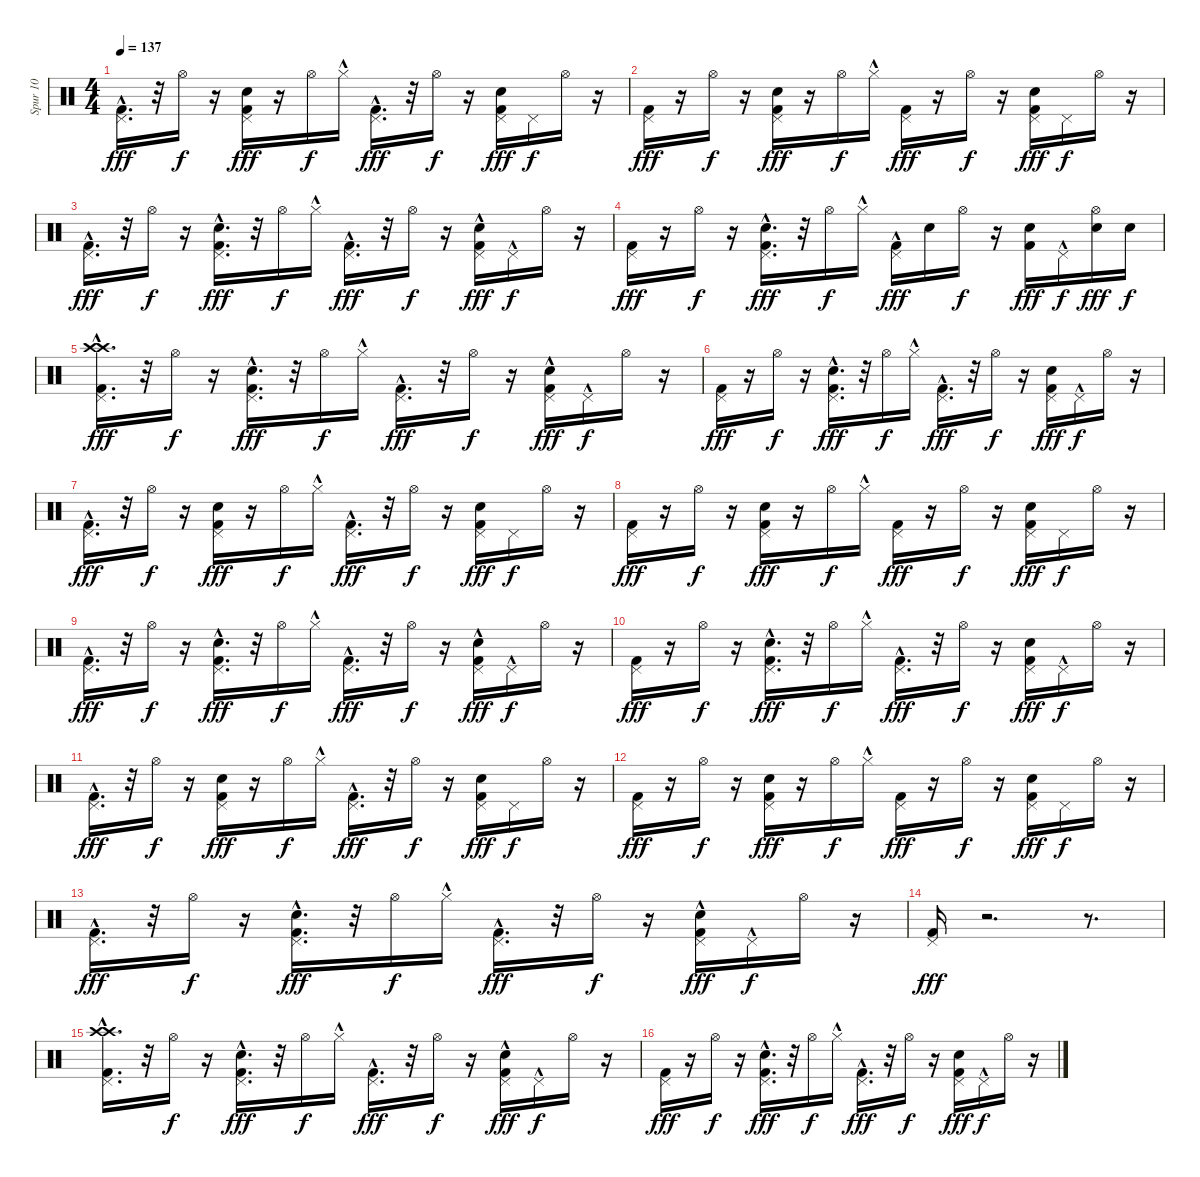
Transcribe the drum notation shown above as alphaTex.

\track ("Spur 10" "Spur 10") {instrument percussion}
\staff {score}
\articulation defaults
\ts (4 4)
\tempo 137
\clef neutral
\ks c
("Pedal Hi-Hat (hit)" "Kick (hit) 2"{hac}).16{d dy fff} r.32 "Hi-Hat (open)".16{dy f} r.16 ("Snare (hit) 2" "Pedal Hi-Hat (hit)" "Kick (hit) 2").16{dy fff} r.16 "Hi-Hat (open)".16{dy f} "Hi-Hat (closed)"{hac}.16 ("Pedal Hi-Hat (hit)" "Kick (hit) 2"{hac}).16{d dy fff} r.32 "Hi-Hat (open)".16{dy f} r.16 ("Snare (hit) 2" "Pedal Hi-Hat (hit)" "Kick (hit) 2").16{dy fff} "Pedal Hi-Hat (hit)".16{dy f} "Hi-Hat (open)".16 r.16 |
("Pedal Hi-Hat (hit)" "Kick (hit) 2").16{dy fff} r.16 "Hi-Hat (open)".16{dy f} r.16 ("Snare (hit) 2" "Pedal Hi-Hat (hit)" "Kick (hit) 2").16{dy fff} r.16 "Hi-Hat (open)".16{dy f} "Hi-Hat (closed)"{hac}.16 ("Pedal Hi-Hat (hit)" "Kick (hit) 2").16{dy fff} r.16 "Hi-Hat (open)".16{dy f} r.16 ("Snare (hit) 2" "Pedal Hi-Hat (hit)" "Kick (hit) 2").16{dy fff} "Pedal Hi-Hat (hit)".16{dy f} "Hi-Hat (open)".16 r.16 |
("Pedal Hi-Hat (hit)" "Kick (hit) 2"{hac}).16{d dy fff} r.32 "Hi-Hat (open)".16{dy f} r.16 ("Snare (hit) 2" "Pedal Hi-Hat (hit)" "Kick (hit) 2"{hac}).16{d dy fff} r.32 "Hi-Hat (open)".16{dy f} "Hi-Hat (closed)"{hac}.16 ("Pedal Hi-Hat (hit)"{hac} "Kick (hit) 2"{hac}).16{d dy fff} r.32 "Hi-Hat (open)".16{dy f} r.16 ("Snare (hit) 2" "Pedal Hi-Hat (hit)" "Kick (hit) 2"{hac}).16{dy fff} "Pedal Hi-Hat (hit)"{hac}.16{dy f} "Hi-Hat (open)".16 r.16 |
("Pedal Hi-Hat (hit)" "Kick (hit) 2").16{dy fff} r.16 "Hi-Hat (open)".16{dy f} r.16 ("Snare (hit) 2" "Pedal Hi-Hat (hit)" "Kick (hit) 2"{hac}).16{d dy fff} r.32 "Hi-Hat (open)".16{dy f} "Hi-Hat (closed)"{hac}.16 ("Pedal Hi-Hat (hit)" "Kick (hit) 2"{hac}).16{dy fff} "Snare (hit) 2".16 "Hi-Hat (open)".16{dy f} r.16 ("Snare (hit) 2" "Kick (hit) 2").16{dy fff} "Pedal Hi-Hat (hit)"{hac}.16{dy f} ("Snare (hit) 2" "Hi-Hat (open)").16{dy fff} "Snare (hit) 2".16{dy f} |
("Crash high (hit)" "Crash high (hit)" "Pedal Hi-Hat (hit)" "Kick (hit) 2"{hac}).16{d dy fff} r.32 "Hi-Hat (open)".16{dy f} r.16 ("Snare (hit) 2" "Pedal Hi-Hat (hit)" "Kick (hit) 2"{hac}).16{d dy fff} r.32 "Hi-Hat (open)".16{dy f} "Hi-Hat (closed)"{hac}.16 ("Pedal Hi-Hat (hit)"{hac} "Kick (hit) 2"{hac}).16{d dy fff} r.32 "Hi-Hat (open)".16{dy f} r.16 ("Snare (hit) 2" "Pedal Hi-Hat (hit)" "Kick (hit) 2"{hac}).16{dy fff} "Pedal Hi-Hat (hit)"{hac}.16{dy f} "Hi-Hat (open)".16 r.16 |
("Pedal Hi-Hat (hit)" "Kick (hit) 2").16{dy fff} r.16 "Hi-Hat (open)".16{dy f} r.16 ("Snare (hit) 2" "Pedal Hi-Hat (hit)" "Kick (hit) 2"{hac}).16{d dy fff} r.32 "Hi-Hat (open)".16{dy f} "Hi-Hat (closed)"{hac}.16 ("Pedal Hi-Hat (hit)" "Kick (hit) 2"{hac}).16{d dy fff} r.32 "Hi-Hat (open)".16{dy f} r.16 ("Snare (hit) 2" "Pedal Hi-Hat (hit)" "Kick (hit) 2").16{dy fff} "Pedal Hi-Hat (hit)"{hac}.16{dy f} "Hi-Hat (open)".16 r.16 |
("Pedal Hi-Hat (hit)" "Kick (hit) 2"{hac}).16{d dy fff} r.32 "Hi-Hat (open)".16{dy f} r.16 ("Snare (hit) 2" "Pedal Hi-Hat (hit)" "Kick (hit) 2").16{dy fff} r.16 "Hi-Hat (open)".16{dy f} "Hi-Hat (closed)"{hac}.16 ("Pedal Hi-Hat (hit)" "Kick (hit) 2"{hac}).16{d dy fff} r.32 "Hi-Hat (open)".16{dy f} r.16 ("Snare (hit) 2" "Pedal Hi-Hat (hit)" "Kick (hit) 2").16{dy fff} "Pedal Hi-Hat (hit)".16{dy f} "Hi-Hat (open)".16 r.16 |
("Pedal Hi-Hat (hit)" "Kick (hit) 2").16{dy fff} r.16 "Hi-Hat (open)".16{dy f} r.16 ("Snare (hit) 2" "Pedal Hi-Hat (hit)" "Kick (hit) 2").16{dy fff} r.16 "Hi-Hat (open)".16{dy f} "Hi-Hat (closed)"{hac}.16 ("Pedal Hi-Hat (hit)" "Kick (hit) 2").16{dy fff} r.16 "Hi-Hat (open)".16{dy f} r.16 ("Snare (hit) 2" "Pedal Hi-Hat (hit)" "Kick (hit) 2").16{dy fff} "Pedal Hi-Hat (hit)".16{dy f} "Hi-Hat (open)".16 r.16 |
("Pedal Hi-Hat (hit)" "Kick (hit) 2"{hac}).16{d dy fff} r.32 "Hi-Hat (open)".16{dy f} r.16 ("Snare (hit) 2" "Pedal Hi-Hat (hit)" "Kick (hit) 2"{hac}).16{d dy fff} r.32 "Hi-Hat (open)".16{dy f} "Hi-Hat (closed)"{hac}.16 ("Pedal Hi-Hat (hit)"{hac} "Kick (hit) 2"{hac}).16{d dy fff} r.32 "Hi-Hat (open)".16{dy f} r.16 ("Snare (hit) 2" "Pedal Hi-Hat (hit)" "Kick (hit) 2"{hac}).16{dy fff} "Pedal Hi-Hat (hit)"{hac}.16{dy f} "Hi-Hat (open)".16 r.16 |
("Pedal Hi-Hat (hit)" "Kick (hit) 2").16{dy fff} r.16 "Hi-Hat (open)".16{dy f} r.16 ("Snare (hit) 2" "Pedal Hi-Hat (hit)" "Kick (hit) 2"{hac}).16{d dy fff} r.32 "Hi-Hat (open)".16{dy f} "Hi-Hat (closed)"{hac}.16 ("Pedal Hi-Hat (hit)" "Kick (hit) 2"{hac}).16{d dy fff} r.32 "Hi-Hat (open)".16{dy f} r.16 ("Snare (hit) 2" "Pedal Hi-Hat (hit)" "Kick (hit) 2").16{dy fff} "Pedal Hi-Hat (hit)"{hac}.16{dy f} "Hi-Hat (open)".16 r.16 |
("Pedal Hi-Hat (hit)" "Kick (hit) 2"{hac}).16{d dy fff} r.32 "Hi-Hat (open)".16{dy f} r.16 ("Snare (hit) 2" "Pedal Hi-Hat (hit)" "Kick (hit) 2").16{dy fff} r.16 "Hi-Hat (open)".16{dy f} "Hi-Hat (closed)"{hac}.16 ("Pedal Hi-Hat (hit)" "Kick (hit) 2"{hac}).16{d dy fff} r.32 "Hi-Hat (open)".16{dy f} r.16 ("Snare (hit) 2" "Pedal Hi-Hat (hit)" "Kick (hit) 2").16{dy fff} "Pedal Hi-Hat (hit)".16{dy f} "Hi-Hat (open)".16 r.16 |
("Pedal Hi-Hat (hit)" "Kick (hit) 2").16{dy fff} r.16 "Hi-Hat (open)".16{dy f} r.16 ("Snare (hit) 2" "Pedal Hi-Hat (hit)" "Kick (hit) 2").16{dy fff} r.16 "Hi-Hat (open)".16{dy f} "Hi-Hat (closed)"{hac}.16 ("Pedal Hi-Hat (hit)" "Kick (hit) 2").16{dy fff} r.16 "Hi-Hat (open)".16{dy f} r.16 ("Snare (hit) 2" "Pedal Hi-Hat (hit)" "Kick (hit) 2").16{dy fff} "Pedal Hi-Hat (hit)".16{dy f} "Hi-Hat (open)".16 r.16 |
("Pedal Hi-Hat (hit)" "Kick (hit) 2"{hac}).16{d dy fff} r.32 "Hi-Hat (open)".16{dy f} r.16 ("Snare (hit) 2" "Pedal Hi-Hat (hit)" "Kick (hit) 2"{hac}).16{d dy fff} r.32 "Hi-Hat (open)".16{dy f} "Hi-Hat (closed)"{hac}.16 ("Pedal Hi-Hat (hit)"{hac} "Kick (hit) 2"{hac}).16{d dy fff} r.32 "Hi-Hat (open)".16{dy f} r.16 ("Snare (hit) 2" "Pedal Hi-Hat (hit)" "Kick (hit) 2"{hac}).16{dy fff} "Pedal Hi-Hat (hit)"{hac}.16{dy f} "Hi-Hat (open)".16 r.16 |
("Pedal Hi-Hat (hit)" "Kick (hit) 2").16{dy fff} r.2{d} r.8{d} |
("Crash high (hit)" "Crash high (hit)" "Pedal Hi-Hat (hit)" "Kick (hit) 2"{hac}).16{d} r.32 "Hi-Hat (open)".16{dy f} r.16 ("Snare (hit) 2" "Pedal Hi-Hat (hit)" "Kick (hit) 2"{hac}).16{d dy fff} r.32 "Hi-Hat (open)".16{dy f} "Hi-Hat (closed)"{hac}.16 ("Pedal Hi-Hat (hit)"{hac} "Kick (hit) 2"{hac}).16{d dy fff} r.32 "Hi-Hat (open)".16{dy f} r.16 ("Snare (hit) 2" "Pedal Hi-Hat (hit)" "Kick (hit) 2"{hac}).16{dy fff} "Pedal Hi-Hat (hit)"{hac}.16{dy f} "Hi-Hat (open)".16 r.16 |
("Pedal Hi-Hat (hit)" "Kick (hit) 2").16{dy fff} r.16 "Hi-Hat (open)".16{dy f} r.16 ("Snare (hit) 2" "Pedal Hi-Hat (hit)" "Kick (hit) 2"{hac}).16{d dy fff} r.32 "Hi-Hat (open)".16{dy f} "Hi-Hat (closed)"{hac}.16 ("Pedal Hi-Hat (hit)" "Kick (hit) 2"{hac}).16{d dy fff} r.32 "Hi-Hat (open)".16{dy f} r.16 ("Snare (hit) 2" "Pedal Hi-Hat (hit)" "Kick (hit) 2").16{dy fff} "Pedal Hi-Hat (hit)"{hac}.16{dy f} "Hi-Hat (open)".16 r.16
